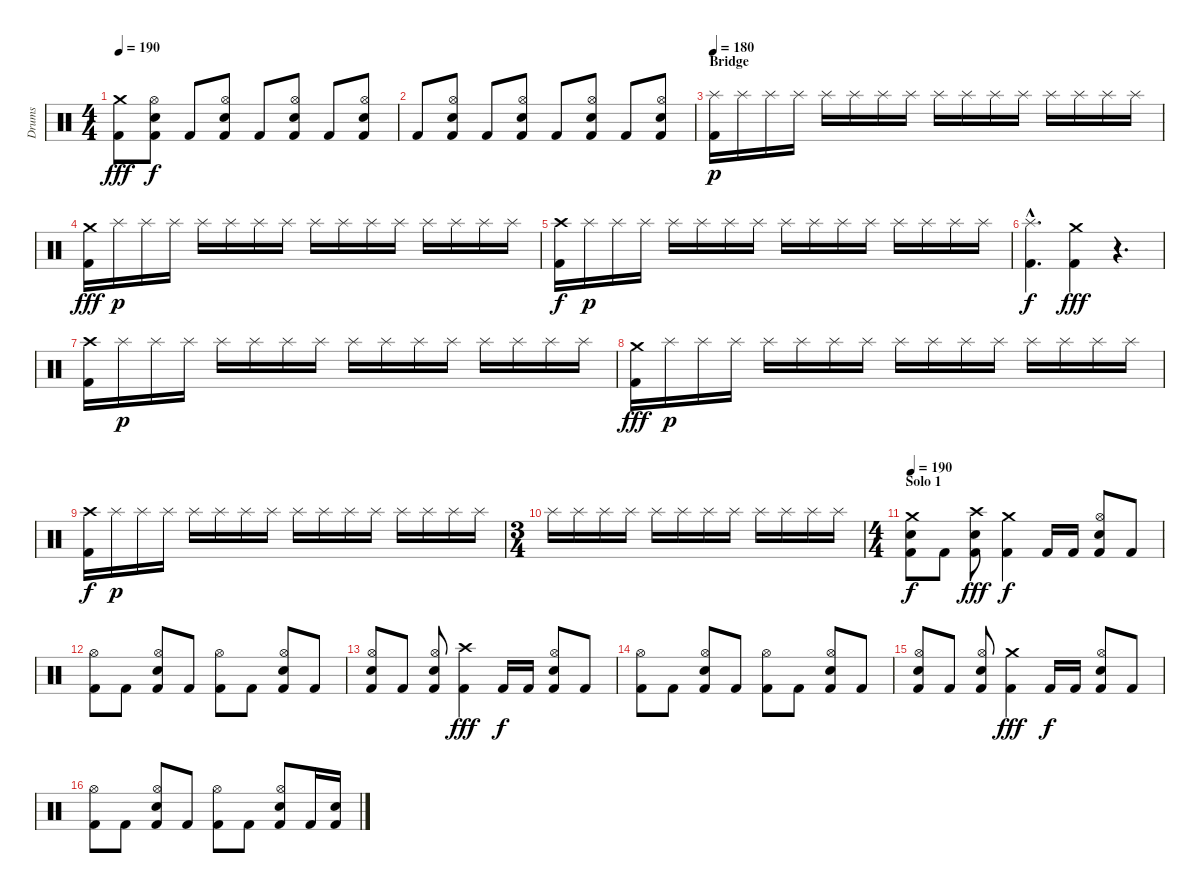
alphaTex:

\track ("Drums" "Drums") {instrument percussion}
\staff {score}
\articulation defaults
\ts (4 4)
\tempo 190
\clef neutral
\ks c
("Crash medium (hit)" "Kick (hit) 2").8{dy fff} ("Hi-Hat (open)" "Snare (hit) 2" "Kick (hit) 2").8{dy f} "Kick (hit) 2".8 ("Hi-Hat (open)" "Snare (hit) 2" "Kick (hit) 2").8 "Kick (hit) 2".8 ("Hi-Hat (open)" "Snare (hit) 2" "Kick (hit) 2").8 "Kick (hit) 2".8 ("Hi-Hat (open)" "Snare (hit) 2" "Kick (hit) 2").8 |
"Kick (hit) 2".8 ("Hi-Hat (open)" "Snare (hit) 2" "Kick (hit) 2").8 "Kick (hit) 2".8 ("Hi-Hat (open)" "Snare (hit) 2" "Kick (hit) 2").8 "Kick (hit) 2".8 ("Hi-Hat (open)" "Snare (hit) 2" "Kick (hit) 2").8 "Kick (hit) 2".8 ("Hi-Hat (open)" "Snare (hit) 2" "Kick (hit) 2").8 |
\section ("" "Bridge")
\tempo 180
("Splash (hit)" "Kick (hit) 2").16{dy p} "Splash (hit)".16 "Splash (hit)".16 "Splash (hit)".16 "Splash (hit)".16 "Splash (hit)".16 "Splash (hit)".16 "Splash (hit)".16 "Splash (hit)".16 "Splash (hit)".16 "Splash (hit)".16 "Splash (hit)".16 "Splash (hit)".16 "Splash (hit)".16 "Splash (hit)".16 "Splash (hit)".16 |
("Crash medium (hit)" "Kick (hit) 2").16{dy fff} "Splash (hit)".16{dy p} "Splash (hit)".16 "Splash (hit)".16 "Splash (hit)".16 "Splash (hit)".16 "Splash (hit)".16 "Splash (hit)".16 "Splash (hit)".16 "Splash (hit)".16 "Splash (hit)".16 "Splash (hit)".16 "Splash (hit)".16 "Splash (hit)".16 "Splash (hit)".16 "Splash (hit)".16 |
("Crash high (hit)" "Kick (hit) 2").16{dy f} "Splash (hit)".16{dy p} "Splash (hit)".16 "Splash (hit)".16 "Splash (hit)".16 "Splash (hit)".16 "Splash (hit)".16 "Splash (hit)".16 "Splash (hit)".16 "Splash (hit)".16 "Splash (hit)".16 "Splash (hit)".16 "Splash (hit)".16 "Splash (hit)".16 "Splash (hit)".16 "Splash (hit)".16 |
("Splash (hit)"{hac} "Kick (hit) 2"{hac}).4{d dy f} ("Crash medium (hit)" "Kick (hit) 2").4{dy fff} r.4{d} |
("Crash high (hit)" "Kick (hit) 2").16 "Splash (hit)".16{dy p} "Splash (hit)".16 "Splash (hit)".16 "Splash (hit)".16 "Splash (hit)".16 "Splash (hit)".16 "Splash (hit)".16 "Splash (hit)".16 "Splash (hit)".16 "Splash (hit)".16 "Splash (hit)".16 "Splash (hit)".16 "Splash (hit)".16 "Splash (hit)".16 "Splash (hit)".16 |
("Crash medium (hit)" "Kick (hit) 2").16{dy fff} "Splash (hit)".16{dy p} "Splash (hit)".16 "Splash (hit)".16 "Splash (hit)".16 "Splash (hit)".16 "Splash (hit)".16 "Splash (hit)".16 "Splash (hit)".16 "Splash (hit)".16 "Splash (hit)".16 "Splash (hit)".16 "Splash (hit)".16 "Splash (hit)".16 "Splash (hit)".16 "Splash (hit)".16 |
("Crash high (hit)" "Kick (hit) 2").16{dy f} "Splash (hit)".16{dy p} "Splash (hit)".16 "Splash (hit)".16 "Splash (hit)".16 "Splash (hit)".16 "Splash (hit)".16 "Splash (hit)".16 "Splash (hit)".16 "Splash (hit)".16 "Splash (hit)".16 "Splash (hit)".16 "Splash (hit)".16 "Splash (hit)".16 "Splash (hit)".16 "Splash (hit)".16 |
\ts (3 4)
"Splash (hit)".16 "Splash (hit)".16 "Splash (hit)".16 "Splash (hit)".16 "Splash (hit)".16 "Splash (hit)".16 "Splash (hit)".16 "Splash (hit)".16 "Splash (hit)".16 "Splash (hit)".16 "Splash (hit)".16 "Splash (hit)".16 |
\ts (4 4)
\section ("" "Solo 1")
\tempo 190
("Crash medium (hit)" "Snare (hit) 2" "Kick (hit) 2").8{dy f} "Kick (hit) 2".8 ("Crash high (hit)" "Snare (hit) 2" "Kick (hit) 2").8{dy fff} ("Crash medium (hit)" "Kick (hit) 2").4{dy f} "Kick (hit) 2".16 "Kick (hit) 2".16 ("Hi-Hat (open)" "Snare (hit) 2" "Kick (hit) 2").8 "Kick (hit) 2".8 |
("Hi-Hat (open)" "Kick (hit) 2").8 "Kick (hit) 2".8 ("Hi-Hat (open)" "Snare (hit) 2" "Kick (hit) 2").8 "Kick (hit) 2".8 ("Hi-Hat (open)" "Kick (hit) 2").8 "Kick (hit) 2".8 ("Hi-Hat (open)" "Snare (hit) 2" "Kick (hit) 2").8 "Kick (hit) 2".8 |
("Hi-Hat (open)" "Snare (hit) 2" "Kick (hit) 2").8 "Kick (hit) 2".8 ("Hi-Hat (open)" "Snare (hit) 2" "Kick (hit) 2").8 ("Crash high (hit)" "Kick (hit) 2").4{dy fff} "Kick (hit) 2".16{dy f} "Kick (hit) 2".16 ("Hi-Hat (open)" "Snare (hit) 2" "Kick (hit) 2").8 "Kick (hit) 2".8 |
("Hi-Hat (open)" "Kick (hit) 2").8 "Kick (hit) 2".8 ("Hi-Hat (open)" "Snare (hit) 2" "Kick (hit) 2").8 "Kick (hit) 2".8 ("Hi-Hat (open)" "Kick (hit) 2").8 "Kick (hit) 2".8 ("Hi-Hat (open)" "Snare (hit) 2" "Kick (hit) 2").8 "Kick (hit) 2".8 |
("Hi-Hat (open)" "Snare (hit) 2" "Kick (hit) 2").8 "Kick (hit) 2".8 ("Hi-Hat (open)" "Snare (hit) 2" "Kick (hit) 2").8 ("Crash medium (hit)" "Kick (hit) 2").4{dy fff} "Kick (hit) 2".16{dy f} "Kick (hit) 2".16 ("Hi-Hat (open)" "Snare (hit) 2" "Kick (hit) 2").8 "Kick (hit) 2".8 |
("Hi-Hat (open)" "Kick (hit) 2").8 "Kick (hit) 2".8 ("Hi-Hat (open)" "Snare (hit) 2" "Kick (hit) 2").8 "Kick (hit) 2".8 ("Hi-Hat (open)" "Kick (hit) 2").8 "Kick (hit) 2".8 ("Hi-Hat (open)" "Snare (hit) 2" "Kick (hit) 2").8 "Kick (hit) 2".16 ("Snare (hit) 2" "Kick (hit) 2").16
